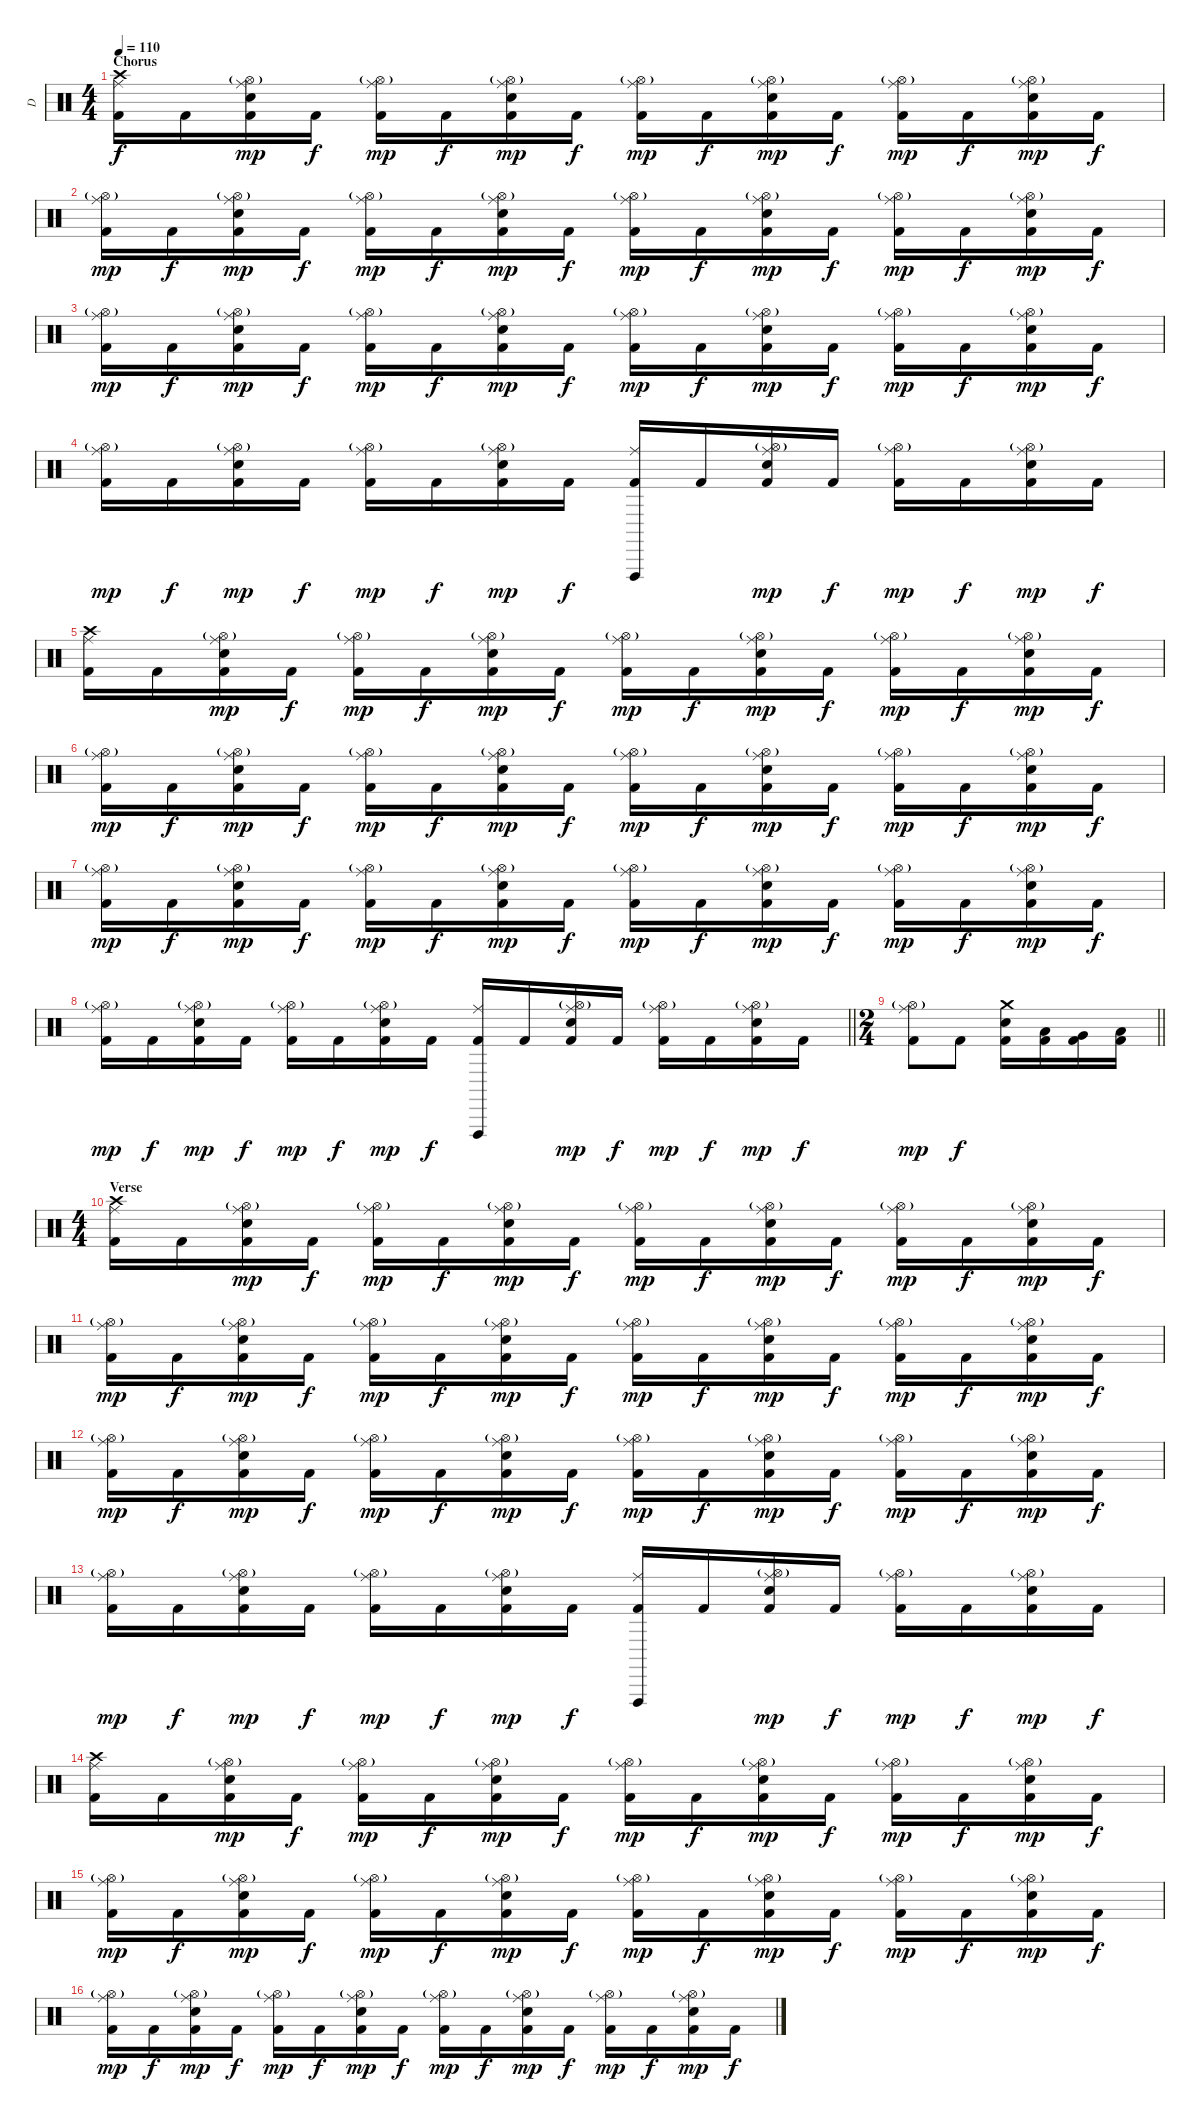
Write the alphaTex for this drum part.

\track ("D" "D") {instrument percussion}
\staff {score}
\articulation defaults
\ts (4 4)
\section ("" "Chorus")
\tempo 110
\clef neutral
\ks c
("Crash high (hit)" "Ride (middle)" "Kick (hit) 2").16{dy f} "Kick (hit) 2".16 ("Ride (middle)" "Hi-Hat (open)"{g} "Electric Snare (hit)" "Kick (hit) 2").16{dy mp} "Kick (hit) 2".16{dy f} ("Ride (middle)" "Hi-Hat (open)"{g} "Kick (hit) 2").16{dy mp} "Kick (hit) 2".16{dy f} ("Ride (middle)" "Hi-Hat (open)"{g} "Electric Snare (hit)" "Kick (hit) 2").16{dy mp} "Kick (hit) 2".16{dy f} ("Ride (middle)" "Hi-Hat (open)"{g} "Kick (hit) 2").16{dy mp} "Kick (hit) 2".16{dy f} ("Ride (middle)" "Hi-Hat (open)"{g} "Electric Snare (hit)" "Kick (hit) 2").16{dy mp} "Kick (hit) 2".16{dy f} ("Ride (middle)" "Hi-Hat (open)"{g} "Kick (hit) 2").16{dy mp} "Kick (hit) 2".16{dy f} ("Ride (middle)" "Hi-Hat (open)"{g} "Electric Snare (hit)" "Kick (hit) 2").16{dy mp} "Kick (hit) 2".16{dy f} |
("Ride (middle)" "Hi-Hat (open)"{g} "Kick (hit) 2").16{dy mp} "Kick (hit) 2".16{dy f} ("Ride (middle)" "Hi-Hat (open)"{g} "Electric Snare (hit)" "Kick (hit) 2").16{dy mp} "Kick (hit) 2".16{dy f} ("Ride (middle)" "Hi-Hat (open)"{g} "Kick (hit) 2").16{dy mp} "Kick (hit) 2".16{dy f} ("Ride (middle)" "Hi-Hat (open)"{g} "Electric Snare (hit)" "Kick (hit) 2").16{dy mp} "Kick (hit) 2".16{dy f} ("Ride (middle)" "Hi-Hat (open)"{g} "Kick (hit) 2").16{dy mp} "Kick (hit) 2".16{dy f} ("Ride (middle)" "Hi-Hat (open)"{g} "Electric Snare (hit)" "Kick (hit) 2").16{dy mp} "Kick (hit) 2".16{dy f} ("Ride (middle)" "Hi-Hat (open)"{g} "Kick (hit) 2").16{dy mp} "Kick (hit) 2".16{dy f} ("Ride (middle)" "Hi-Hat (open)"{g} "Electric Snare (hit)" "Kick (hit) 2").16{dy mp} "Kick (hit) 2".16{dy f} |
("Ride (middle)" "Hi-Hat (open)"{g} "Kick (hit) 2").16{dy mp} "Kick (hit) 2".16{dy f} ("Ride (middle)" "Hi-Hat (open)"{g} "Electric Snare (hit)" "Kick (hit) 2").16{dy mp} "Kick (hit) 2".16{dy f} ("Ride (middle)" "Hi-Hat (open)"{g} "Kick (hit) 2").16{dy mp} "Kick (hit) 2".16{dy f} ("Ride (middle)" "Hi-Hat (open)"{g} "Electric Snare (hit)" "Kick (hit) 2").16{dy mp} "Kick (hit) 2".16{dy f} ("Ride (middle)" "Hi-Hat (open)"{g} "Kick (hit) 2").16{dy mp} "Kick (hit) 2".16{dy f} ("Ride (middle)" "Hi-Hat (open)"{g} "Electric Snare (hit)" "Kick (hit) 2").16{dy mp} "Kick (hit) 2".16{dy f} ("Ride (middle)" "Hi-Hat (open)"{g} "Kick (hit) 2").16{dy mp} "Kick (hit) 2".16{dy f} ("Ride (middle)" "Hi-Hat (open)"{g} "Electric Snare (hit)" "Kick (hit) 2").16{dy mp} "Kick (hit) 2".16{dy f} |
("Ride (middle)" "Hi-Hat (open)"{g} "Kick (hit) 2").16{dy mp} "Kick (hit) 2".16{dy f} ("Ride (middle)" "Hi-Hat (open)"{g} "Electric Snare (hit)" "Kick (hit) 2").16{dy mp} "Kick (hit) 2".16{dy f} ("Ride (middle)" "Hi-Hat (open)"{g} "Kick (hit) 2").16{dy mp} "Kick (hit) 2".16{dy f} ("Ride (middle)" "Hi-Hat (open)"{g} "Electric Snare (hit)" "Kick (hit) 2").16{dy mp} "Kick (hit) 2".16{dy f} ("Ride (middle)" "Vibraslap (hit)" "Kick (hit) 2").16 "Kick (hit) 2".16 ("Ride (middle)" "Hi-Hat (open)"{g} "Electric Snare (hit)" "Kick (hit) 2").16{dy mp} "Kick (hit) 2".16{dy f} ("Ride (middle)" "Hi-Hat (open)"{g} "Kick (hit) 2").16{dy mp} "Kick (hit) 2".16{dy f} ("Ride (middle)" "Hi-Hat (open)"{g} "Electric Snare (hit)" "Kick (hit) 2").16{dy mp} "Kick (hit) 2".16{dy f} |
("Crash high (hit)" "Ride (middle)" "Kick (hit) 2").16 "Kick (hit) 2".16 ("Ride (middle)" "Hi-Hat (open)"{g} "Electric Snare (hit)" "Kick (hit) 2").16{dy mp} "Kick (hit) 2".16{dy f} ("Ride (middle)" "Hi-Hat (open)"{g} "Kick (hit) 2").16{dy mp} "Kick (hit) 2".16{dy f} ("Ride (middle)" "Hi-Hat (open)"{g} "Electric Snare (hit)" "Kick (hit) 2").16{dy mp} "Kick (hit) 2".16{dy f} ("Ride (middle)" "Hi-Hat (open)"{g} "Kick (hit) 2").16{dy mp} "Kick (hit) 2".16{dy f} ("Ride (middle)" "Hi-Hat (open)"{g} "Electric Snare (hit)" "Kick (hit) 2").16{dy mp} "Kick (hit) 2".16{dy f} ("Ride (middle)" "Hi-Hat (open)"{g} "Kick (hit) 2").16{dy mp} "Kick (hit) 2".16{dy f} ("Ride (middle)" "Hi-Hat (open)"{g} "Electric Snare (hit)" "Kick (hit) 2").16{dy mp} "Kick (hit) 2".16{dy f} |
("Ride (middle)" "Hi-Hat (open)"{g} "Kick (hit) 2").16{dy mp} "Kick (hit) 2".16{dy f} ("Ride (middle)" "Hi-Hat (open)"{g} "Electric Snare (hit)" "Kick (hit) 2").16{dy mp} "Kick (hit) 2".16{dy f} ("Ride (middle)" "Hi-Hat (open)"{g} "Kick (hit) 2").16{dy mp} "Kick (hit) 2".16{dy f} ("Ride (middle)" "Hi-Hat (open)"{g} "Electric Snare (hit)" "Kick (hit) 2").16{dy mp} "Kick (hit) 2".16{dy f} ("Ride (middle)" "Hi-Hat (open)"{g} "Kick (hit) 2").16{dy mp} "Kick (hit) 2".16{dy f} ("Ride (middle)" "Hi-Hat (open)"{g} "Electric Snare (hit)" "Kick (hit) 2").16{dy mp} "Kick (hit) 2".16{dy f} ("Ride (middle)" "Hi-Hat (open)"{g} "Kick (hit) 2").16{dy mp} "Kick (hit) 2".16{dy f} ("Ride (middle)" "Hi-Hat (open)"{g} "Electric Snare (hit)" "Kick (hit) 2").16{dy mp} "Kick (hit) 2".16{dy f} |
("Ride (middle)" "Hi-Hat (open)"{g} "Kick (hit) 2").16{dy mp} "Kick (hit) 2".16{dy f} ("Ride (middle)" "Hi-Hat (open)"{g} "Electric Snare (hit)" "Kick (hit) 2").16{dy mp} "Kick (hit) 2".16{dy f} ("Ride (middle)" "Hi-Hat (open)"{g} "Kick (hit) 2").16{dy mp} "Kick (hit) 2".16{dy f} ("Ride (middle)" "Hi-Hat (open)"{g} "Electric Snare (hit)" "Kick (hit) 2").16{dy mp} "Kick (hit) 2".16{dy f} ("Ride (middle)" "Hi-Hat (open)"{g} "Kick (hit) 2").16{dy mp} "Kick (hit) 2".16{dy f} ("Ride (middle)" "Hi-Hat (open)"{g} "Electric Snare (hit)" "Kick (hit) 2").16{dy mp} "Kick (hit) 2".16{dy f} ("Ride (middle)" "Hi-Hat (open)"{g} "Kick (hit) 2").16{dy mp} "Kick (hit) 2".16{dy f} ("Ride (middle)" "Hi-Hat (open)"{g} "Electric Snare (hit)" "Kick (hit) 2").16{dy mp} "Kick (hit) 2".16{dy f} |
\barLineRight lightlight
("Ride (middle)" "Hi-Hat (open)"{g} "Kick (hit) 2").16{dy mp} "Kick (hit) 2".16{dy f} ("Ride (middle)" "Hi-Hat (open)"{g} "Electric Snare (hit)" "Kick (hit) 2").16{dy mp} "Kick (hit) 2".16{dy f} ("Ride (middle)" "Hi-Hat (open)"{g} "Kick (hit) 2").16{dy mp} "Kick (hit) 2".16{dy f} ("Ride (middle)" "Hi-Hat (open)"{g} "Electric Snare (hit)" "Kick (hit) 2").16{dy mp} "Kick (hit) 2".16{dy f} ("Ride (middle)" "Vibraslap (hit)" "Kick (hit) 2").16 "Kick (hit) 2".16 ("Ride (middle)" "Hi-Hat (open)"{g} "Electric Snare (hit)" "Kick (hit) 2").16{dy mp} "Kick (hit) 2".16{dy f} ("Ride (middle)" "Hi-Hat (open)"{g} "Kick (hit) 2").16{dy mp} "Kick (hit) 2".16{dy f} ("Ride (middle)" "Hi-Hat (open)"{g} "Electric Snare (hit)" "Kick (hit) 2").16{dy mp} "Kick (hit) 2".16{dy f} |
\ts (2 4)
\section ("" "")
\barLineRight lightlight
("Ride (middle)" "Hi-Hat (open)"{g} "Kick (hit) 2").8{dy mp} "Kick (hit) 2".8{dy f} ("Crash medium (hit)" "Electric Snare (hit)" "Kick (hit) 2").16 ("Low Tom (hit)" "Kick (hit) 2").16 ("Very Low Tom (hit)" "Kick (hit) 2").16 ("Low Floor Tom (hit)" "Kick (hit) 2").16 |
\ts (4 4)
\section ("" "Verse")
("Crash high (hit)" "Ride (middle)" "Kick (hit) 2").16 "Kick (hit) 2".16 ("Ride (middle)" "Hi-Hat (open)"{g} "Electric Snare (hit)" "Kick (hit) 2").16{dy mp} "Kick (hit) 2".16{dy f} ("Ride (middle)" "Hi-Hat (open)"{g} "Kick (hit) 2").16{dy mp} "Kick (hit) 2".16{dy f} ("Ride (middle)" "Hi-Hat (open)"{g} "Electric Snare (hit)" "Kick (hit) 2").16{dy mp} "Kick (hit) 2".16{dy f} ("Ride (middle)" "Hi-Hat (open)"{g} "Kick (hit) 2").16{dy mp} "Kick (hit) 2".16{dy f} ("Ride (middle)" "Hi-Hat (open)"{g} "Electric Snare (hit)" "Kick (hit) 2").16{dy mp} "Kick (hit) 2".16{dy f} ("Ride (middle)" "Hi-Hat (open)"{g} "Kick (hit) 2").16{dy mp} "Kick (hit) 2".16{dy f} ("Ride (middle)" "Hi-Hat (open)"{g} "Electric Snare (hit)" "Kick (hit) 2").16{dy mp} "Kick (hit) 2".16{dy f} |
("Ride (middle)" "Hi-Hat (open)"{g} "Kick (hit) 2").16{dy mp} "Kick (hit) 2".16{dy f} ("Ride (middle)" "Hi-Hat (open)"{g} "Electric Snare (hit)" "Kick (hit) 2").16{dy mp} "Kick (hit) 2".16{dy f} ("Ride (middle)" "Hi-Hat (open)"{g} "Kick (hit) 2").16{dy mp} "Kick (hit) 2".16{dy f} ("Ride (middle)" "Hi-Hat (open)"{g} "Electric Snare (hit)" "Kick (hit) 2").16{dy mp} "Kick (hit) 2".16{dy f} ("Ride (middle)" "Hi-Hat (open)"{g} "Kick (hit) 2").16{dy mp} "Kick (hit) 2".16{dy f} ("Ride (middle)" "Hi-Hat (open)"{g} "Electric Snare (hit)" "Kick (hit) 2").16{dy mp} "Kick (hit) 2".16{dy f} ("Ride (middle)" "Hi-Hat (open)"{g} "Kick (hit) 2").16{dy mp} "Kick (hit) 2".16{dy f} ("Ride (middle)" "Hi-Hat (open)"{g} "Electric Snare (hit)" "Kick (hit) 2").16{dy mp} "Kick (hit) 2".16{dy f} |
("Ride (middle)" "Hi-Hat (open)"{g} "Kick (hit) 2").16{dy mp} "Kick (hit) 2".16{dy f} ("Ride (middle)" "Hi-Hat (open)"{g} "Electric Snare (hit)" "Kick (hit) 2").16{dy mp} "Kick (hit) 2".16{dy f} ("Ride (middle)" "Hi-Hat (open)"{g} "Kick (hit) 2").16{dy mp} "Kick (hit) 2".16{dy f} ("Ride (middle)" "Hi-Hat (open)"{g} "Electric Snare (hit)" "Kick (hit) 2").16{dy mp} "Kick (hit) 2".16{dy f} ("Ride (middle)" "Hi-Hat (open)"{g} "Kick (hit) 2").16{dy mp} "Kick (hit) 2".16{dy f} ("Ride (middle)" "Hi-Hat (open)"{g} "Electric Snare (hit)" "Kick (hit) 2").16{dy mp} "Kick (hit) 2".16{dy f} ("Ride (middle)" "Hi-Hat (open)"{g} "Kick (hit) 2").16{dy mp} "Kick (hit) 2".16{dy f} ("Ride (middle)" "Hi-Hat (open)"{g} "Electric Snare (hit)" "Kick (hit) 2").16{dy mp} "Kick (hit) 2".16{dy f} |
("Ride (middle)" "Hi-Hat (open)"{g} "Kick (hit) 2").16{dy mp} "Kick (hit) 2".16{dy f} ("Ride (middle)" "Hi-Hat (open)"{g} "Electric Snare (hit)" "Kick (hit) 2").16{dy mp} "Kick (hit) 2".16{dy f} ("Ride (middle)" "Hi-Hat (open)"{g} "Kick (hit) 2").16{dy mp} "Kick (hit) 2".16{dy f} ("Ride (middle)" "Hi-Hat (open)"{g} "Electric Snare (hit)" "Kick (hit) 2").16{dy mp} "Kick (hit) 2".16{dy f} ("Ride (middle)" "Vibraslap (hit)" "Kick (hit) 2").16 "Kick (hit) 2".16 ("Ride (middle)" "Hi-Hat (open)"{g} "Electric Snare (hit)" "Kick (hit) 2").16{dy mp} "Kick (hit) 2".16{dy f} ("Ride (middle)" "Hi-Hat (open)"{g} "Kick (hit) 2").16{dy mp} "Kick (hit) 2".16{dy f} ("Ride (middle)" "Hi-Hat (open)"{g} "Electric Snare (hit)" "Kick (hit) 2").16{dy mp} "Kick (hit) 2".16{dy f} |
("Crash high (hit)" "Ride (middle)" "Kick (hit) 2").16 "Kick (hit) 2".16 ("Ride (middle)" "Hi-Hat (open)"{g} "Electric Snare (hit)" "Kick (hit) 2").16{dy mp} "Kick (hit) 2".16{dy f} ("Ride (middle)" "Hi-Hat (open)"{g} "Kick (hit) 2").16{dy mp} "Kick (hit) 2".16{dy f} ("Ride (middle)" "Hi-Hat (open)"{g} "Electric Snare (hit)" "Kick (hit) 2").16{dy mp} "Kick (hit) 2".16{dy f} ("Ride (middle)" "Hi-Hat (open)"{g} "Kick (hit) 2").16{dy mp} "Kick (hit) 2".16{dy f} ("Ride (middle)" "Hi-Hat (open)"{g} "Electric Snare (hit)" "Kick (hit) 2").16{dy mp} "Kick (hit) 2".16{dy f} ("Ride (middle)" "Hi-Hat (open)"{g} "Kick (hit) 2").16{dy mp} "Kick (hit) 2".16{dy f} ("Ride (middle)" "Hi-Hat (open)"{g} "Electric Snare (hit)" "Kick (hit) 2").16{dy mp} "Kick (hit) 2".16{dy f} |
("Ride (middle)" "Hi-Hat (open)"{g} "Kick (hit) 2").16{dy mp} "Kick (hit) 2".16{dy f} ("Ride (middle)" "Hi-Hat (open)"{g} "Electric Snare (hit)" "Kick (hit) 2").16{dy mp} "Kick (hit) 2".16{dy f} ("Ride (middle)" "Hi-Hat (open)"{g} "Kick (hit) 2").16{dy mp} "Kick (hit) 2".16{dy f} ("Ride (middle)" "Hi-Hat (open)"{g} "Electric Snare (hit)" "Kick (hit) 2").16{dy mp} "Kick (hit) 2".16{dy f} ("Ride (middle)" "Hi-Hat (open)"{g} "Kick (hit) 2").16{dy mp} "Kick (hit) 2".16{dy f} ("Ride (middle)" "Hi-Hat (open)"{g} "Electric Snare (hit)" "Kick (hit) 2").16{dy mp} "Kick (hit) 2".16{dy f} ("Ride (middle)" "Hi-Hat (open)"{g} "Kick (hit) 2").16{dy mp} "Kick (hit) 2".16{dy f} ("Ride (middle)" "Hi-Hat (open)"{g} "Electric Snare (hit)" "Kick (hit) 2").16{dy mp} "Kick (hit) 2".16{dy f} |
("Ride (middle)" "Hi-Hat (open)"{g} "Kick (hit) 2").16{dy mp} "Kick (hit) 2".16{dy f} ("Ride (middle)" "Hi-Hat (open)"{g} "Electric Snare (hit)" "Kick (hit) 2").16{dy mp} "Kick (hit) 2".16{dy f} ("Ride (middle)" "Hi-Hat (open)"{g} "Kick (hit) 2").16{dy mp} "Kick (hit) 2".16{dy f} ("Ride (middle)" "Hi-Hat (open)"{g} "Electric Snare (hit)" "Kick (hit) 2").16{dy mp} "Kick (hit) 2".16{dy f} ("Ride (middle)" "Hi-Hat (open)"{g} "Kick (hit) 2").16{dy mp} "Kick (hit) 2".16{dy f} ("Ride (middle)" "Hi-Hat (open)"{g} "Electric Snare (hit)" "Kick (hit) 2").16{dy mp} "Kick (hit) 2".16{dy f} ("Ride (middle)" "Hi-Hat (open)"{g} "Kick (hit) 2").16{dy mp} "Kick (hit) 2".16{dy f} ("Ride (middle)" "Hi-Hat (open)"{g} "Electric Snare (hit)" "Kick (hit) 2").16{dy mp} "Kick (hit) 2".16{dy f}
